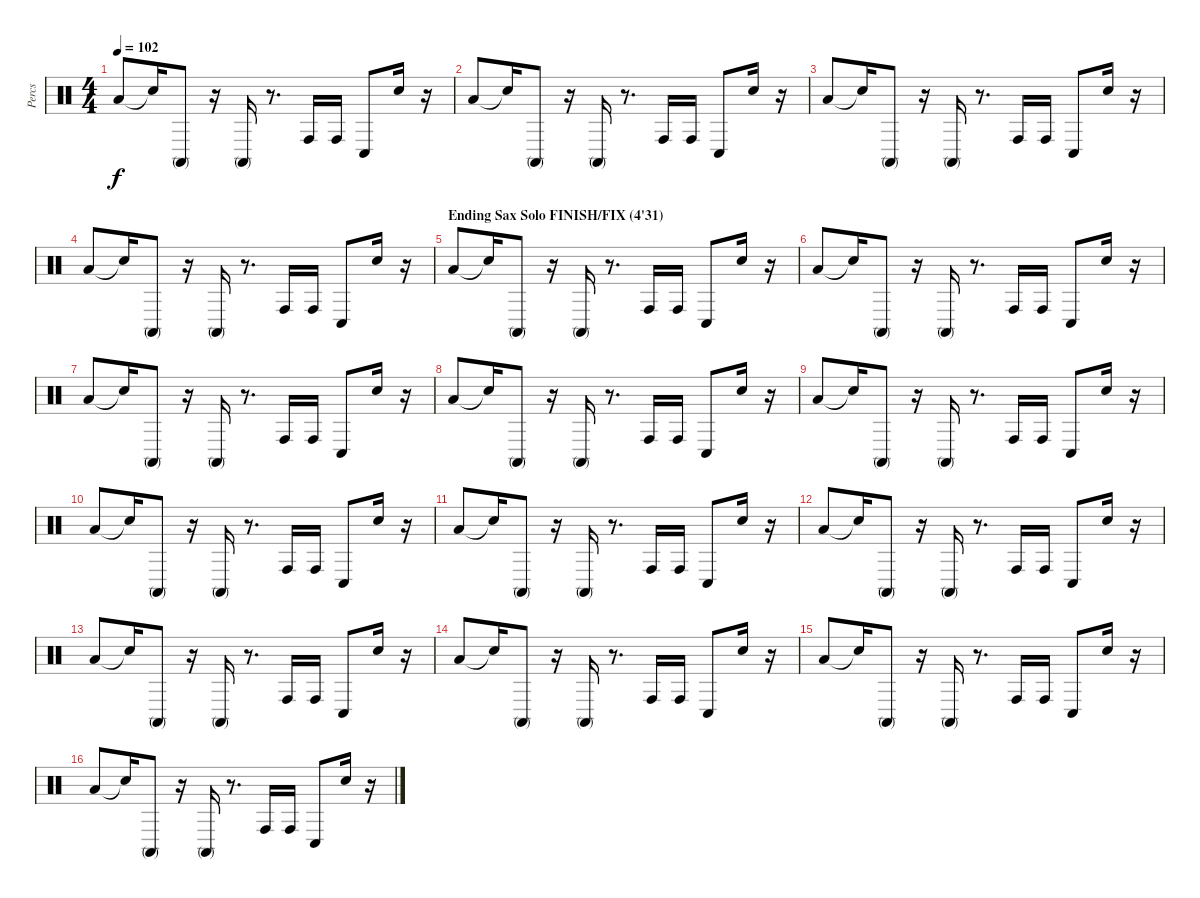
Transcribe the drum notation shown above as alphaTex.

\track ("Percs" "Percs") {instrument percussion}
\staff {score}
\articulation defaults
\ts (4 4)
\tempo 102
\clef neutral
\ks c "Low Floor Tom (hit)".8{dy f} "Snare (hit)"{t}.16 "Conga high (mute)".8
r.16 "Conga high (mute)".16 r.8{d} "Conga high (hit)".16 "Conga high (hit)".16 "Conga low (hit)".8 "Hand Clap (hit)".16 r.16 |
"Low Floor Tom (hit)".8 "Snare (hit)"{t}.16 "Conga high (mute)".8 r.16 "Conga high (mute)".16 r.8{d} "Conga high (hit)".16 "Conga high (hit)".16 "Conga low (hit)".8 "Hand Clap (hit)".16 r.16 |
"Low Floor Tom (hit)".8 "Snare (hit)"{t}.16 "Conga high (mute)".8 r.16 "Conga high (mute)".16 r.8{d} "Conga high (hit)".16 "Conga high (hit)".16 "Conga low (hit)".8 "Hand Clap (hit)".16 r.16 |
"Low Floor Tom (hit)".8 "Snare (hit)"{t}.16 "Conga high (mute)".8 r.16 "Conga high (mute)".16 r.8{d} "Conga high (hit)".16 "Conga high (hit)".16 "Conga low (hit)".8 "Hand Clap (hit)".16 r.16 |
\section ("" "Ending Sax Solo FINISH/FIX (4'31)")
"Low Floor Tom (hit)".8 "Snare (hit)"{t}.16 "Conga high (mute)".8 r.16 "Conga high (mute)".16 r.8{d} "Conga high (hit)".16 "Conga high (hit)".16 "Conga low (hit)".8 "Hand Clap (hit)".16 r.16 |
"Low Floor Tom (hit)".8 "Snare (hit)"{t}.16 "Conga high (mute)".8 r.16 "Conga high (mute)".16 r.8{d} "Conga high (hit)".16 "Conga high (hit)".16 "Conga low (hit)".8 "Hand Clap (hit)".16 r.16 |
"Low Floor Tom (hit)".8 "Snare (hit)"{t}.16 "Conga high (mute)".8 r.16 "Conga high (mute)".16 r.8{d} "Conga high (hit)".16 "Conga high (hit)".16 "Conga low (hit)".8 "Hand Clap (hit)".16 r.16 |
"Low Floor Tom (hit)".8 "Snare (hit)"{t}.16 "Conga high (mute)".8 r.16 "Conga high (mute)".16 r.8{d} "Conga high (hit)".16 "Conga high (hit)".16 "Conga low (hit)".8 "Hand Clap (hit)".16 r.16 |
"Low Floor Tom (hit)".8 "Snare (hit)"{t}.16 "Conga high (mute)".8 r.16 "Conga high (mute)".16 r.8{d} "Conga high (hit)".16 "Conga high (hit)".16 "Conga low (hit)".8 "Hand Clap (hit)".16 r.16 |
"Low Floor Tom (hit)".8 "Snare (hit)"{t}.16 "Conga high (mute)".8 r.16 "Conga high (mute)".16 r.8{d} "Conga high (hit)".16 "Conga high (hit)".16 "Conga low (hit)".8 "Hand Clap (hit)".16 r.16 |
"Low Floor Tom (hit)".8 "Snare (hit)"{t}.16 "Conga high (mute)".8 r.16 "Conga high (mute)".16 r.8{d} "Conga high (hit)".16 "Conga high (hit)".16 "Conga low (hit)".8 "Hand Clap (hit)".16 r.16 |
"Low Floor Tom (hit)".8 "Snare (hit)"{t}.16 "Conga high (mute)".8 r.16 "Conga high (mute)".16 r.8{d} "Conga high (hit)".16 "Conga high (hit)".16 "Conga low (hit)".8 "Hand Clap (hit)".16 r.16 |
"Low Floor Tom (hit)".8 "Snare (hit)"{t}.16 "Conga high (mute)".8 r.16 "Conga high (mute)".16 r.8{d} "Conga high (hit)".16 "Conga high (hit)".16 "Conga low (hit)".8 "Hand Clap (hit)".16 r.16 |
"Low Floor Tom (hit)".8 "Snare (hit)"{t}.16 "Conga high (mute)".8 r.16 "Conga high (mute)".16 r.8{d} "Conga high (hit)".16 "Conga high (hit)".16 "Conga low (hit)".8 "Hand Clap (hit)".16 r.16 |
"Low Floor Tom (hit)".8 "Snare (hit)"{t}.16 "Conga high (mute)".8 r.16 "Conga high (mute)".16 r.8{d} "Conga high (hit)".16 "Conga high (hit)".16 "Conga low (hit)".8 "Hand Clap (hit)".16 r.16 |
"Low Floor Tom (hit)".8 "Snare (hit)"{t}.16 "Conga high (mute)".8 r.16 "Conga high (mute)".16 r.8{d} "Conga high (hit)".16 "Conga high (hit)".16 "Conga low (hit)".8 "Hand Clap (hit)".16 r.16
